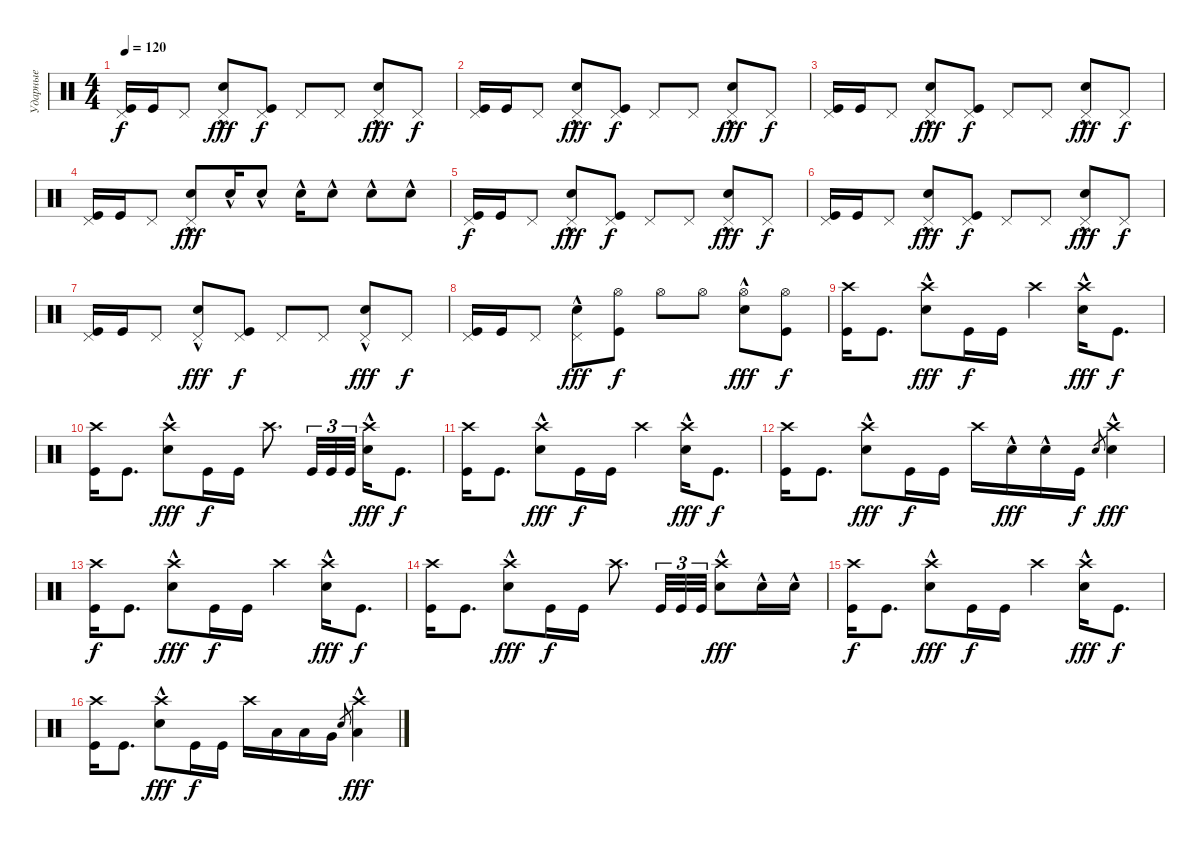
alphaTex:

\track ("Ударные" "Ударные") {instrument percussion}
\staff {score}
\articulation defaults
\ts (4 4)
\tempo 120
\clef neutral
\ks c
("Kick (hit)" "Pedal Hi-Hat (hit)").16{dy f} "Kick (hit)".16 "Pedal Hi-Hat (hit)".8 ("Electric Snare (hit)"{hac} "Pedal Hi-Hat (hit)").8{dy fff} ("Kick (hit)" "Pedal Hi-Hat (hit)").8{dy f} "Pedal Hi-Hat (hit)".8 "Pedal Hi-Hat (hit)".8 ("Electric Snare (hit)"{hac} "Pedal Hi-Hat (hit)").8{dy fff} "Pedal Hi-Hat (hit)".8{dy f} |
("Kick (hit)" "Pedal Hi-Hat (hit)").16 "Kick (hit)".16 "Pedal Hi-Hat (hit)".8 ("Electric Snare (hit)"{hac} "Pedal Hi-Hat (hit)").8{dy fff} ("Kick (hit)" "Pedal Hi-Hat (hit)").8{dy f} "Pedal Hi-Hat (hit)".8 "Pedal Hi-Hat (hit)".8 ("Electric Snare (hit)"{hac} "Pedal Hi-Hat (hit)").8{dy fff} "Pedal Hi-Hat (hit)".8{dy f} |
("Kick (hit)" "Pedal Hi-Hat (hit)").16 "Kick (hit)".16 "Pedal Hi-Hat (hit)".8 ("Electric Snare (hit)"{hac} "Pedal Hi-Hat (hit)").8{dy fff} ("Kick (hit)" "Pedal Hi-Hat (hit)").8{dy f} "Pedal Hi-Hat (hit)".8 "Pedal Hi-Hat (hit)".8 ("Electric Snare (hit)"{hac} "Pedal Hi-Hat (hit)").8{dy fff} "Pedal Hi-Hat (hit)".8{dy f} |
("Kick (hit)" "Pedal Hi-Hat (hit)").16 "Kick (hit)".16 "Pedal Hi-Hat (hit)".8 ("Electric Snare (hit)"{hac} "Pedal Hi-Hat (hit)").8{dy fff} "Electric Snare (hit)"{hac}.16 "Electric Snare (hit)"{hac}.8 "Electric Snare (hit)"{hac}.16 "Electric Snare (hit)"{hac}.8 "Electric Snare (hit)"{hac}.8 "Electric Snare (hit)"{hac}.8 |
("Kick (hit)" "Pedal Hi-Hat (hit)").16{dy f} "Kick (hit)".16 "Pedal Hi-Hat (hit)".8 ("Electric Snare (hit)"{hac} "Pedal Hi-Hat (hit)").8{dy fff} ("Kick (hit)" "Pedal Hi-Hat (hit)").8{dy f} "Pedal Hi-Hat (hit)".8 "Pedal Hi-Hat (hit)".8 ("Electric Snare (hit)"{hac} "Pedal Hi-Hat (hit)").8{dy fff} "Pedal Hi-Hat (hit)".8{dy f} |
("Kick (hit)" "Pedal Hi-Hat (hit)").16 "Kick (hit)".16 "Pedal Hi-Hat (hit)".8 ("Electric Snare (hit)"{hac} "Pedal Hi-Hat (hit)").8{dy fff} ("Kick (hit)" "Pedal Hi-Hat (hit)").8{dy f} "Pedal Hi-Hat (hit)".8 "Pedal Hi-Hat (hit)".8 ("Electric Snare (hit)"{hac} "Pedal Hi-Hat (hit)").8{dy fff} "Pedal Hi-Hat (hit)".8{dy f} |
("Kick (hit)" "Pedal Hi-Hat (hit)").16 "Kick (hit)".16 "Pedal Hi-Hat (hit)".8 ("Electric Snare (hit)"{hac} "Pedal Hi-Hat (hit)").8{dy fff} ("Kick (hit)" "Pedal Hi-Hat (hit)").8{dy f} "Pedal Hi-Hat (hit)".8 "Pedal Hi-Hat (hit)".8 ("Electric Snare (hit)"{hac} "Pedal Hi-Hat (hit)").8{dy fff} "Pedal Hi-Hat (hit)".8{dy f} |
("Kick (hit)" "Pedal Hi-Hat (hit)").16 "Kick (hit)".16 "Pedal Hi-Hat (hit)".8 ("Electric Snare (hit)"{hac} "Pedal Hi-Hat (hit)").8{dy fff} ("Kick (hit)" "Hi-Hat (open)").8{dy f} "Hi-Hat (open)".8 "Hi-Hat (open)".8 ("Electric Snare (hit)"{hac} "Hi-Hat (open)").8{dy fff} ("Kick (hit)" "Hi-Hat (open)").8{dy f} |
("Kick (hit)" "Crash high (hit)").16 "Kick (hit)".8{d} ("Electric Snare (hit)"{hac} "Crash high (hit)").8{dy fff} "Kick (hit)".16{dy f} "Kick (hit)".16 "Crash high (hit)".4 ("Electric Snare (hit)"{hac} "Crash high (hit)").16{dy fff} "Kick (hit)".8{d dy f} |
("Kick (hit)" "Crash high (hit)").16 "Kick (hit)".8{d} ("Electric Snare (hit)"{hac} "Crash high (hit)").8{dy fff} "Kick (hit)".16{dy f} "Kick (hit)".16 "Crash high (hit)".8{d} "Kick (hit)".32{tu (3 2)} "Kick (hit)".32{tu (3 2)} "Kick (hit)".32{tu (3 2)} ("Electric Snare (hit)"{hac} "Crash high (hit)").16{dy fff} "Kick (hit)".8{d dy f} |
("Kick (hit)" "Crash high (hit)").16 "Kick (hit)".8{d} ("Electric Snare (hit)"{hac} "Crash high (hit)").8{dy fff} "Kick (hit)".16{dy f} "Kick (hit)".16 "Crash high (hit)".4 ("Electric Snare (hit)"{hac} "Crash high (hit)").16{dy fff} "Kick (hit)".8{d dy f} |
("Kick (hit)" "Crash high (hit)").16 "Kick (hit)".8{d} ("Electric Snare (hit)"{hac} "Crash high (hit)").8{dy fff} "Kick (hit)".16{dy f} "Kick (hit)".16 "Crash high (hit)".16 "Electric Snare (hit)"{hac}.16{dy fff} "Electric Snare (hit)"{hac}.16 "Kick (hit)".16{dy f} "Electric Snare (hit)".8{gr} ("Electric Snare (hit)"{hac} "Crash high (hit)").4{dy fff} |
("Kick (hit)" "Crash high (hit)").16{dy f} "Kick (hit)".8{d} ("Electric Snare (hit)"{hac} "Crash high (hit)").8{dy fff} "Kick (hit)".16{dy f} "Kick (hit)".16 "Crash high (hit)".4 ("Electric Snare (hit)"{hac} "Crash high (hit)").16{dy fff} "Kick (hit)".8{d dy f} |
("Kick (hit)" "Crash high (hit)").16 "Kick (hit)".8{d} ("Electric Snare (hit)"{hac} "Crash high (hit)").8{dy fff} "Kick (hit)".16{dy f} "Kick (hit)".16 "Crash high (hit)".8{d} "Kick (hit)".32{tu (3 2)} "Kick (hit)".32{tu (3 2)} "Kick (hit)".32{tu (3 2)} ("Electric Snare (hit)"{hac} "Crash high (hit)").8{dy fff} "Electric Snare (hit)"{hac}.16 "Electric Snare (hit)"{hac}.16 |
("Kick (hit)" "Crash high (hit)").16{dy f} "Kick (hit)".8{d} ("Electric Snare (hit)"{hac} "Crash high (hit)").8{dy fff} "Kick (hit)".16{dy f} "Kick (hit)".16 "Crash high (hit)".4 ("Electric Snare (hit)"{hac} "Crash high (hit)").16{dy fff} "Kick (hit)".8{d dy f} |
("Kick (hit)" "Crash high (hit)").16 "Kick (hit)".8{d} ("Electric Snare (hit)"{hac} "Crash high (hit)").8{dy fff} "Kick (hit)".16{dy f} "Kick (hit)".16 "Crash high (hit)".16 "Low Tom (hit)".16 "Low Tom (hit)".16 "Very Low Tom (hit)".16 "Electric Snare (hit)".8{gr} ("Low Floor Tom (hit)"{hac} "Crash high (hit)").4{dy fff}
